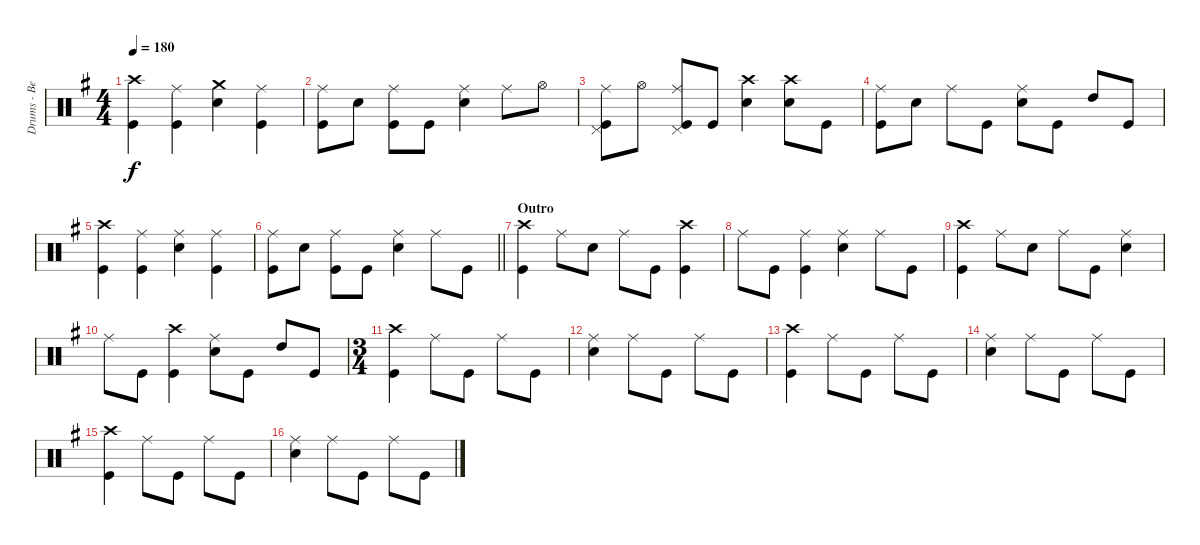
\track ("Drums - Ben Johnston" "Drums - Be") {instrument percussion}
\staff {score}
\articulation defaults
\ts (4 4)
\tempo 180
\clef neutral
\ks eminor
("Crash high (hit)" "Kick (hit)").4{dy f} ("Ride (middle)" "Kick (hit)").4 ("Crash medium (hit)" "Snare (hit) 2").4 ("Ride (middle)" "Kick (hit)").4 |
("Ride (middle)" "Kick (hit)").8 "Snare (hit) 2".8 ("Ride (middle)" "Kick (hit)").8 "Kick (hit)".8 ("Ride (middle)" "Snare (hit) 2").4 "Ride (middle)".8 "Hi-Hat (open)".8 |
("Ride (middle)" "Pedal Hi-Hat (hit)" "Kick (hit)").8 "Hi-Hat (open)".8 ("Ride (middle)" "Pedal Hi-Hat (hit)" "Kick (hit)").8 "Kick (hit)".8 ("Crash high (hit)" "Snare (hit) 2").4 ("Crash high (hit)" "Snare (hit) 2").8 "Kick (hit)".8 |
("Ride (middle)" "Kick (hit)").8 "Snare (hit) 2".8 "Ride (middle)".8 "Kick (hit)".8 ("Ride (middle)" "Snare (hit) 2").8 "Kick (hit)".8 "High Tom (hit)".8 "Kick (hit)".8 |
("Crash high (hit)" "Kick (hit)").4 ("Ride (middle)" "Kick (hit)").4 ("Ride (middle)" "Snare (hit) 2").4 ("Ride (middle)" "Kick (hit)").4 |
\barLineRight lightlight
("Ride (middle)" "Kick (hit)").8 "Snare (hit) 2".8 ("Ride (middle)" "Kick (hit)").8 "Kick (hit)".8 ("Ride (middle)" "Snare (hit) 2").4 "Ride (middle)".8 "Kick (hit)".8 |
\section ("" "Outro")
("Crash high (hit)" "Kick (hit)").4 "Ride (middle)".8 "Snare (hit) 2".8 "Ride (middle)".8 "Kick (hit)".8 ("Crash high (hit)" "Kick (hit)").4 |
"Ride (middle)".8 "Kick (hit)".8 ("Ride (middle)" "Kick (hit)").4 ("Ride (middle)" "Snare (hit) 2").4 "Ride (middle)".8 "Kick (hit)".8 |
("Crash high (hit)" "Kick (hit)").4 "Ride (middle)".8 "Snare (hit) 2".8 "Ride (middle)".8 "Kick (hit)".8 ("Ride (middle)" "Snare (hit) 2").4 |
"Ride (middle)".8 "Kick (hit)".8 ("Crash high (hit)" "Kick (hit)").4 ("Ride (middle)" "Snare (hit) 2").8 "Kick (hit)".8 "High Tom (hit)".8 "Kick (hit)".8 |
\ts (3 4)
("Crash high (hit)" "Kick (hit)").4 "Ride (middle)".8 "Kick (hit)".8 "Ride (middle)".8 "Kick (hit)".8 |
("Ride (middle)" "Snare (hit) 2").4 "Ride (middle)".8 "Kick (hit)".8 "Ride (middle)".8 "Kick (hit)".8 |
("Crash high (hit)" "Kick (hit)").4 "Ride (middle)".8 "Kick (hit)".8 "Ride (middle)".8 "Kick (hit)".8 |
("Ride (middle)" "Snare (hit) 2").4 "Ride (middle)".8 "Kick (hit)".8 "Ride (middle)".8 "Kick (hit)".8 |
("Crash high (hit)" "Kick (hit)").4 "Ride (middle)".8 "Kick (hit)".8 "Ride (middle)".8 "Kick (hit)".8 |
("Ride (middle)" "Snare (hit) 2").4 "Ride (middle)".8 "Kick (hit)".8 "Ride (middle)".8 "Kick (hit)".8
